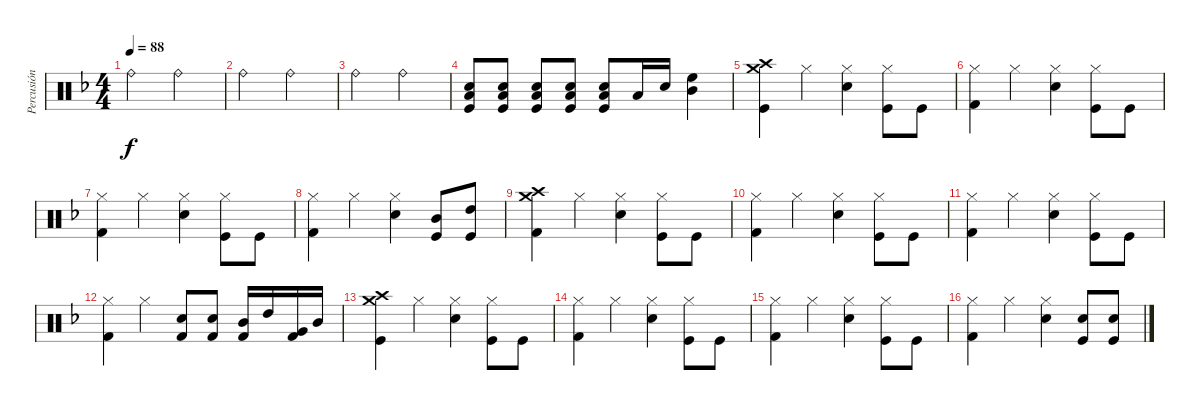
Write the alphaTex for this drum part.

\track ("Percusión" "Percusión") {instrument percussion}
\staff {score}
\articulation defaults
\ts (4 4)
\tempo 88
\clef neutral
\ks f "Ride (bell)".2{dy f} "Ride (bell)".2
|
"Ride (bell)".2 "Ride (bell)".2 |
"Ride (bell)".2 "Ride (bell)".2 |
("Snare (hit) 2" "Low Floor Tom (hit)" "Kick (hit)").8 ("Snare (hit) 2" "Low Floor Tom (hit)" "Kick (hit)").8 ("Snare (hit) 2" "Low Floor Tom (hit)" "Kick (hit)").8 ("Snare (hit) 2" "Low Floor Tom (hit)" "Kick (hit)").8 ("Snare (hit) 2" "Low Floor Tom (hit)" "Kick (hit)").8 "Low Floor Tom (hit)".16 "Snare (hit) 2".16 ("High Floor Tom (hit)" "Mid Tom (hit)").4 |
("Crash high (hit)" "Kick (hit)" "Crash medium (hit)").4 "Hi-Hat (closed)".4 ("Snare (hit) 2" "Hi-Hat (closed)").4 ("Kick (hit)" "Hi-Hat (closed)").8 "Kick (hit)".8 |
("Hi-Hat (closed)" "Kick (hit) 2").4 "Hi-Hat (closed)".4 ("Snare (hit) 2" "Hi-Hat (closed)").4 ("Kick (hit)" "Hi-Hat (closed)").8 "Kick (hit)".8 |
("Hi-Hat (closed)" "Kick (hit) 2").4 "Hi-Hat (closed)".4 ("Snare (hit) 2" "Hi-Hat (closed)").4 ("Kick (hit)" "Hi-Hat (closed)").8 "Kick (hit)".8 |
("Hi-Hat (closed)" "Kick (hit) 2").4 "Hi-Hat (closed)".4 ("Snare (hit) 2" "Hi-Hat (closed)").4 ("Kick (hit)" "Mid Tom (hit)").8 ("Kick (hit)" "High Tom (hit)").8 |
("Crash high (hit)" "Kick (hit) 2" "Crash medium (hit)").4 "Hi-Hat (closed)".4 ("Snare (hit) 2" "Hi-Hat (closed)").4 ("Kick (hit)" "Hi-Hat (closed)").8 "Kick (hit)".8 |
("Hi-Hat (closed)" "Kick (hit) 2").4 "Hi-Hat (closed)".4 ("Snare (hit) 2" "Hi-Hat (closed)").4 ("Kick (hit)" "Hi-Hat (closed)").8 "Kick (hit)".8 |
("Hi-Hat (closed)" "Kick (hit) 2").4 "Hi-Hat (closed)".4 ("Snare (hit) 2" "Hi-Hat (closed)").4 ("Kick (hit)" "Hi-Hat (closed)").8 "Kick (hit)".8 |
("Hi-Hat (closed)" "Kick (hit) 2").4 "Hi-Hat (closed)".4 ("Snare (hit) 2" "Kick (hit) 2").8 ("Snare (hit) 2" "Kick (hit) 2").8 ("Mid Tom (hit)" "Kick (hit) 2").16 "High Tom (hit)".16 ("Very Low Tom (hit)" "Kick (hit) 2").16 "Mid Tom (hit)".16 |
("Crash high (hit)" "Kick (hit)" "Crash medium (hit)").4 "Hi-Hat (closed)".4 ("Snare (hit) 2" "Hi-Hat (closed)").4 ("Kick (hit)" "Hi-Hat (closed)").8 "Kick (hit)".8 |
("Hi-Hat (closed)" "Kick (hit) 2").4 "Hi-Hat (closed)".4 ("Snare (hit) 2" "Hi-Hat (closed)").4 ("Kick (hit)" "Hi-Hat (closed)").8 "Kick (hit)".8 |
("Hi-Hat (closed)" "Kick (hit) 2").4 "Hi-Hat (closed)".4 ("Snare (hit) 2" "Hi-Hat (closed)").4 ("Kick (hit)" "Hi-Hat (closed)").8 "Kick (hit)".8 |
("Hi-Hat (closed)" "Kick (hit) 2").4 "Hi-Hat (closed)".4 ("Snare (hit) 2" "Hi-Hat (closed)").4 ("Kick (hit)" "Snare (hit) 2").8 ("Kick (hit)" "Snare (hit) 2").8
